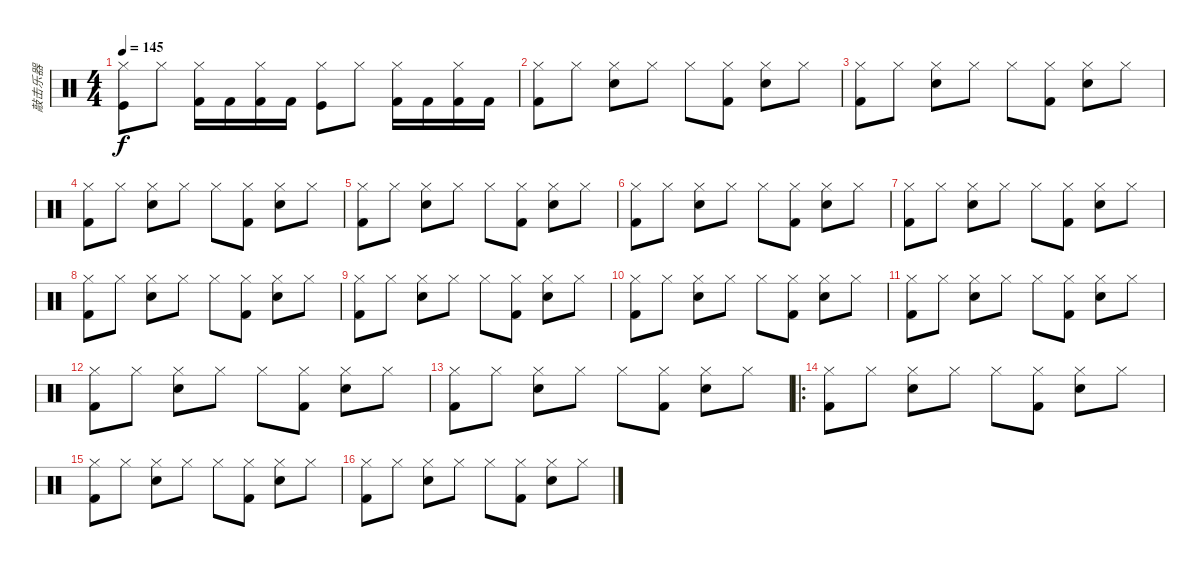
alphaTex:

\track ("敲击乐器" "敲击乐器") {instrument percussion}
\staff {score}
\articulation defaults
\ts (4 4)
\tempo 145
\clef neutral
\ks c
("Kick (hit)" "Hi-Hat (closed)").8{dy f} "Hi-Hat (closed)".8 ("Kick (hit) 2" "Hi-Hat (closed)").16 "Kick (hit) 2".16 ("Kick (hit) 2" "Hi-Hat (closed)").16 "Kick (hit) 2".16 ("Kick (hit)" "Hi-Hat (closed)").8 "Hi-Hat (closed)".8 ("Kick (hit) 2" "Hi-Hat (closed)").16 "Kick (hit) 2".16 ("Kick (hit) 2" "Hi-Hat (closed)").16 "Kick (hit) 2".16 |
("Hi-Hat (closed)" "Kick (hit) 2").8 "Hi-Hat (closed)".8 ("Hi-Hat (closed)" "Snare (hit) 2").8 "Hi-Hat (closed)".8 "Hi-Hat (closed)".8 ("Hi-Hat (closed)" "Kick (hit) 2").8 ("Hi-Hat (closed)" "Snare (hit) 2").8 "Hi-Hat (closed)".8 |
("Hi-Hat (closed)" "Kick (hit) 2").8 "Hi-Hat (closed)".8 ("Hi-Hat (closed)" "Snare (hit) 2").8 "Hi-Hat (closed)".8 "Hi-Hat (closed)".8 ("Hi-Hat (closed)" "Kick (hit) 2").8 ("Hi-Hat (closed)" "Snare (hit) 2").8 "Hi-Hat (closed)".8 |
("Hi-Hat (closed)" "Kick (hit) 2").8 "Hi-Hat (closed)".8 ("Hi-Hat (closed)" "Snare (hit) 2").8 "Hi-Hat (closed)".8 "Hi-Hat (closed)".8 ("Hi-Hat (closed)" "Kick (hit) 2").8 ("Hi-Hat (closed)" "Snare (hit) 2").8 "Hi-Hat (closed)".8 |
("Hi-Hat (closed)" "Kick (hit) 2").8 "Hi-Hat (closed)".8 ("Hi-Hat (closed)" "Snare (hit) 2").8 "Hi-Hat (closed)".8 "Hi-Hat (closed)".8 ("Hi-Hat (closed)" "Kick (hit) 2").8 ("Hi-Hat (closed)" "Snare (hit) 2").8 "Hi-Hat (closed)".8 |
("Hi-Hat (closed)" "Kick (hit) 2").8 "Hi-Hat (closed)".8 ("Hi-Hat (closed)" "Snare (hit) 2").8 "Hi-Hat (closed)".8 "Hi-Hat (closed)".8 ("Hi-Hat (closed)" "Kick (hit) 2").8 ("Hi-Hat (closed)" "Snare (hit) 2").8 "Hi-Hat (closed)".8 |
("Hi-Hat (closed)" "Kick (hit) 2").8 "Hi-Hat (closed)".8 ("Hi-Hat (closed)" "Snare (hit) 2").8 "Hi-Hat (closed)".8 "Hi-Hat (closed)".8 ("Hi-Hat (closed)" "Kick (hit) 2").8 ("Hi-Hat (closed)" "Snare (hit) 2").8 "Hi-Hat (closed)".8 |
("Hi-Hat (closed)" "Kick (hit) 2").8 "Hi-Hat (closed)".8 ("Hi-Hat (closed)" "Snare (hit) 2").8 "Hi-Hat (closed)".8 "Hi-Hat (closed)".8 ("Hi-Hat (closed)" "Kick (hit) 2").8 ("Hi-Hat (closed)" "Snare (hit) 2").8 "Hi-Hat (closed)".8 |
("Hi-Hat (closed)" "Kick (hit) 2").8 "Hi-Hat (closed)".8 ("Hi-Hat (closed)" "Snare (hit) 2").8 "Hi-Hat (closed)".8 "Hi-Hat (closed)".8 ("Hi-Hat (closed)" "Kick (hit) 2").8 ("Hi-Hat (closed)" "Snare (hit) 2").8 "Hi-Hat (closed)".8 |
("Hi-Hat (closed)" "Kick (hit) 2").8 "Hi-Hat (closed)".8 ("Hi-Hat (closed)" "Snare (hit) 2").8 "Hi-Hat (closed)".8 "Hi-Hat (closed)".8 ("Hi-Hat (closed)" "Kick (hit) 2").8 ("Hi-Hat (closed)" "Snare (hit) 2").8 "Hi-Hat (closed)".8 |
("Hi-Hat (closed)" "Kick (hit) 2").8 "Hi-Hat (closed)".8 ("Hi-Hat (closed)" "Snare (hit) 2").8 "Hi-Hat (closed)".8 "Hi-Hat (closed)".8 ("Hi-Hat (closed)" "Kick (hit) 2").8 ("Hi-Hat (closed)" "Snare (hit) 2").8 "Hi-Hat (closed)".8 |
("Hi-Hat (closed)" "Kick (hit) 2").8 "Hi-Hat (closed)".8 ("Hi-Hat (closed)" "Snare (hit) 2").8 "Hi-Hat (closed)".8 "Hi-Hat (closed)".8 ("Hi-Hat (closed)" "Kick (hit) 2").8 ("Hi-Hat (closed)" "Snare (hit) 2").8 "Hi-Hat (closed)".8 |
("Hi-Hat (closed)" "Kick (hit) 2").8 "Hi-Hat (closed)".8 ("Hi-Hat (closed)" "Snare (hit) 2").8 "Hi-Hat (closed)".8 "Hi-Hat (closed)".8 ("Hi-Hat (closed)" "Kick (hit) 2").8 ("Hi-Hat (closed)" "Snare (hit) 2").8 "Hi-Hat (closed)".8 |
\ro
("Hi-Hat (closed)" "Kick (hit) 2").8 "Hi-Hat (closed)".8 ("Hi-Hat (closed)" "Snare (hit) 2").8 "Hi-Hat (closed)".8 "Hi-Hat (closed)".8 ("Hi-Hat (closed)" "Kick (hit) 2").8 ("Hi-Hat (closed)" "Snare (hit) 2").8 "Hi-Hat (closed)".8 |
("Hi-Hat (closed)" "Kick (hit) 2").8 "Hi-Hat (closed)".8 ("Hi-Hat (closed)" "Snare (hit) 2").8 "Hi-Hat (closed)".8 "Hi-Hat (closed)".8 ("Hi-Hat (closed)" "Kick (hit) 2").8 ("Hi-Hat (closed)" "Snare (hit) 2").8 "Hi-Hat (closed)".8 |
("Hi-Hat (closed)" "Kick (hit) 2").8 "Hi-Hat (closed)".8 ("Hi-Hat (closed)" "Snare (hit) 2").8 "Hi-Hat (closed)".8 "Hi-Hat (closed)".8 ("Hi-Hat (closed)" "Kick (hit) 2").8 ("Hi-Hat (closed)" "Snare (hit) 2").8 "Hi-Hat (closed)".8
